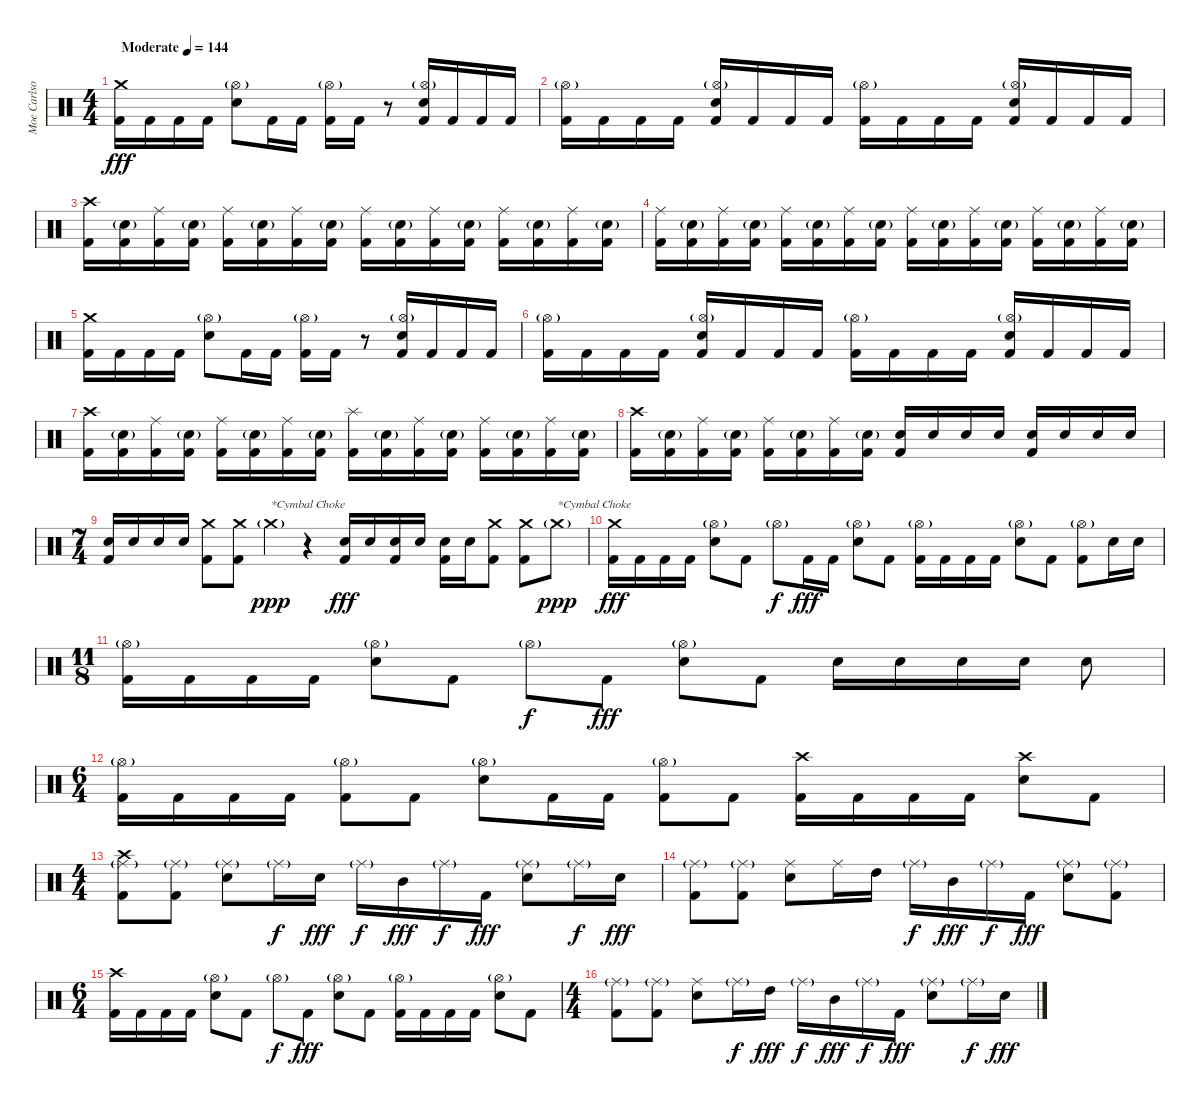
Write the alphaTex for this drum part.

\track ("Moe Carlson" "Moe Carlso") {solo instrument percussion}
\staff {score}
\articulation defaults
\ts (4 4)
\tempo (144 "Moderate")
\clef neutral
\ks c
("Crash medium (hit)" "Kick (hit) 2").16{dy fff} "Kick (hit) 2".16 "Kick (hit) 2".16 "Kick (hit) 2".16 ("Hi-Hat (open)"{g} "Electric Snare (hit)").8 "Kick (hit) 2".16 "Kick (hit) 2".16 ("Hi-Hat (open)"{g} "Kick (hit) 2").16 "Kick (hit) 2".16 r.8 ("Hi-Hat (open)"{g} "Electric Snare (hit)" "Kick (hit) 2").16 "Kick (hit) 2".16 "Kick (hit) 2".16 "Kick (hit) 2".16 |
("Hi-Hat (open)"{g} "Kick (hit) 2").16 "Kick (hit) 2".16 "Kick (hit) 2".16 "Kick (hit) 2".16 ("Hi-Hat (open)"{g} "Electric Snare (hit)" "Kick (hit) 2").16 "Kick (hit) 2".16 "Kick (hit) 2".16 "Kick (hit) 2".16 ("Hi-Hat (open)"{g} "Kick (hit) 2").16 "Kick (hit) 2".16 "Kick (hit) 2".16 "Kick (hit) 2".16 ("Hi-Hat (open)"{g} "Electric Snare (hit)" "Kick (hit) 2").16 "Kick (hit) 2".16 "Kick (hit) 2".16 "Kick (hit) 2".16 |
("Crash high (hit)" "Kick (hit) 2").16 ("Electric Snare (hit)"{g} "Kick (hit) 2").16 ("Ride (middle)" "Kick (hit) 2").16 ("Electric Snare (hit)"{g} "Kick (hit) 2").16 ("Ride (middle)" "Kick (hit) 2").16 ("Electric Snare (hit)"{g} "Kick (hit) 2").16 ("Ride (middle)" "Kick (hit) 2").16 ("Electric Snare (hit)"{g} "Kick (hit) 2").16 ("Ride (middle)" "Kick (hit) 2").16 ("Electric Snare (hit)"{g} "Kick (hit) 2").16 ("Ride (middle)" "Kick (hit) 2").16 ("Electric Snare (hit)"{g} "Kick (hit) 2").16 ("Ride (middle)" "Kick (hit) 2").16 ("Electric Snare (hit)"{g} "Kick (hit) 2").16 ("Ride (middle)" "Kick (hit) 2").16 ("Electric Snare (hit)"{g} "Kick (hit) 2").16 |
("Ride (middle)" "Kick (hit) 2").16 ("Electric Snare (hit)"{g} "Kick (hit) 2").16 ("Ride (middle)" "Kick (hit) 2").16 ("Electric Snare (hit)"{g} "Kick (hit) 2").16 ("Ride (middle)" "Kick (hit) 2").16 ("Electric Snare (hit)"{g} "Kick (hit) 2").16 ("Ride (middle)" "Kick (hit) 2").16 ("Electric Snare (hit)"{g} "Kick (hit) 2").16 ("Ride (middle)" "Kick (hit) 2").16 ("Electric Snare (hit)"{g} "Kick (hit) 2").16 ("Ride (middle)" "Kick (hit) 2").16 ("Electric Snare (hit)"{g} "Kick (hit) 2").16 ("Ride (middle)" "Kick (hit) 2").16 ("Electric Snare (hit)"{g} "Kick (hit) 2").16 ("Ride (middle)" "Kick (hit) 2").16 ("Electric Snare (hit)"{g} "Kick (hit) 2").16 |
("Crash medium (hit)" "Kick (hit) 2").16 "Kick (hit) 2".16 "Kick (hit) 2".16 "Kick (hit) 2".16 ("Hi-Hat (open)"{g} "Electric Snare (hit)").8 "Kick (hit) 2".16 "Kick (hit) 2".16 ("Hi-Hat (open)"{g} "Kick (hit) 2").16 "Kick (hit) 2".16 r.8 ("Hi-Hat (open)"{g} "Electric Snare (hit)" "Kick (hit) 2").16 "Kick (hit) 2".16 "Kick (hit) 2".16 "Kick (hit) 2".16 |
("Hi-Hat (open)"{g} "Kick (hit) 2").16 "Kick (hit) 2".16 "Kick (hit) 2".16 "Kick (hit) 2".16 ("Hi-Hat (open)"{g} "Electric Snare (hit)" "Kick (hit) 2").16 "Kick (hit) 2".16 "Kick (hit) 2".16 "Kick (hit) 2".16 ("Hi-Hat (open)"{g} "Kick (hit) 2").16 "Kick (hit) 2".16 "Kick (hit) 2".16 "Kick (hit) 2".16 ("Hi-Hat (open)"{g} "Electric Snare (hit)" "Kick (hit) 2").16 "Kick (hit) 2".16 "Kick (hit) 2".16 "Kick (hit) 2".16 |
("Crash high (hit)" "Kick (hit) 2").16 ("Electric Snare (hit)"{g} "Kick (hit) 2").16 ("Ride (middle)" "Kick (hit) 2").16 ("Electric Snare (hit)"{g} "Kick (hit) 2").16 ("Ride (middle)" "Kick (hit) 2").16 ("Electric Snare (hit)"{g} "Kick (hit) 2").16 ("Ride (middle)" "Kick (hit) 2").16 ("Electric Snare (hit)"{g} "Kick (hit) 2").16 ("Splash (hit)" "Kick (hit) 2").16 ("Electric Snare (hit)"{g} "Kick (hit) 2").16 ("Ride (middle)" "Kick (hit) 2").16 ("Electric Snare (hit)"{g} "Kick (hit) 2").16 ("Ride (middle)" "Kick (hit) 2").16 ("Electric Snare (hit)"{g} "Kick (hit) 2").16 ("Ride (middle)" "Kick (hit) 2").16 ("Electric Snare (hit)"{g} "Kick (hit) 2").16 |
("Crash high (hit)" "Kick (hit) 2").16 ("Electric Snare (hit)"{g} "Kick (hit) 2").16 ("Ride (middle)" "Kick (hit) 2").16 ("Electric Snare (hit)"{g} "Kick (hit) 2").16 ("Ride (middle)" "Kick (hit) 2").16 ("Electric Snare (hit)"{g} "Kick (hit) 2").16 ("Ride (middle)" "Kick (hit) 2").16 ("Electric Snare (hit)"{g} "Kick (hit) 2").16 ("Electric Snare (hit)" "Kick (hit) 2").16 "Electric Snare (hit)".16 "Electric Snare (hit)".16 "Electric Snare (hit)".16 ("Electric Snare (hit)" "Kick (hit) 2").16 "Electric Snare (hit)".16 "Electric Snare (hit)".16 "Electric Snare (hit)".16 |
\ts (7 4)
("Electric Snare (hit)" "Kick (hit) 2").16 "Electric Snare (hit)".16 "Electric Snare (hit)".16 "Electric Snare (hit)".16 ("Crash medium (hit)" "Kick (hit) 2").8 ("Crash medium (hit)" "Kick (hit) 2").8 "Crash medium (hit)"{g}.4{txt "*Cymbal Choke" dy ppp} r.4 ("Electric Snare (hit)" "Kick (hit) 2").16{dy fff} "Electric Snare (hit)".16 ("Electric Snare (hit)" "Kick (hit) 2").16 "Electric Snare (hit)".16 ("Electric Snare (hit)" "Kick (hit) 2").16 "Electric Snare (hit)".16 ("Crash medium (hit)" "Kick (hit) 2").8 ("Crash medium (hit)" "Kick (hit) 2").8 "Crash medium (hit)"{g}.8{txt "*Cymbal Choke" dy ppp} |
("Crash medium (hit)" "Kick (hit) 2").16{dy fff} "Kick (hit) 2".16 "Kick (hit) 2".16 "Kick (hit) 2".16 ("Hi-Hat (open)"{g} "Electric Snare (hit)").8 "Kick (hit) 2".8 "Hi-Hat (open)"{g}.8{dy f} "Kick (hit) 2".16{dy fff} "Kick (hit) 2".16 ("Hi-Hat (open)"{g} "Electric Snare (hit)").8 "Kick (hit) 2".8 ("Hi-Hat (open)"{g} "Kick (hit) 2").16 "Kick (hit) 2".16 "Kick (hit) 2".16 "Kick (hit) 2".16 ("Hi-Hat (open)"{g} "Electric Snare (hit)").8 "Kick (hit) 2".8 ("Hi-Hat (open)"{g} "Kick (hit) 2").8 "Electric Snare (hit)".16 "Electric Snare (hit)".16 |
\ts (11 8)
("Hi-Hat (open)"{g} "Kick (hit) 2").16 "Kick (hit) 2".16 "Kick (hit) 2".16 "Kick (hit) 2".16 ("Hi-Hat (open)"{g} "Electric Snare (hit)").8 "Kick (hit) 2".8 "Hi-Hat (open)"{g}.8{dy f} "Kick (hit) 2".8{dy fff} ("Hi-Hat (open)"{g} "Electric Snare (hit)").8 "Kick (hit) 2".8 "Electric Snare (hit)".16 "Electric Snare (hit)".16 "Electric Snare (hit)".16 "Electric Snare (hit)".16 "Electric Snare (hit)".8 |
\ts (6 4)
("Hi-Hat (open)"{g} "Kick (hit) 2").16 "Kick (hit) 2".16 "Kick (hit) 2".16 "Kick (hit) 2".16 ("Hi-Hat (open)"{g} "Kick (hit) 2").8 "Kick (hit) 2".8 ("Hi-Hat (open)"{g} "Electric Snare (hit)").8 "Kick (hit) 2".16 "Kick (hit) 2".16 ("Hi-Hat (open)"{g} "Kick (hit) 2").8 "Kick (hit) 2".8 ("Crash high (hit)" "Kick (hit) 2").16 "Kick (hit) 2".16 "Kick (hit) 2".16 "Kick (hit) 2".16 ("Crash high (hit)" "Electric Snare (hit)").8 "Kick (hit) 2".8 |
\ts (4 4)
("Crash high (hit)" "Ride (middle)"{g} "Kick (hit) 2").8 ("Ride (middle)"{g} "Kick (hit) 2").8 ("Ride (middle)"{g} "Electric Snare (hit)").8 "Ride (middle)"{g}.16{dy f} "Electric Snare (hit)".16{dy fff} "Ride (middle)"{g}.16{dy f} "Mid Tom (hit)".16{dy fff} "Ride (middle)"{g}.16{dy f} "Kick (hit) 2".16{dy fff} ("Ride (middle)"{g} "Electric Snare (hit)").8 "Ride (middle)"{g}.16{dy f} "Electric Snare (hit)".16{dy fff} |
("Ride (middle)"{g} "Kick (hit) 2").8 ("Ride (middle)"{g} "Kick (hit) 2").8 ("Ride (middle)" "Electric Snare (hit)").8 "Ride (middle)".16 "High Tom (hit)".16 "Ride (middle)"{g}.16{dy f} "Mid Tom (hit)".16{dy fff} "Ride (middle)"{g}.16{dy f} "Kick (hit) 2".16{dy fff} ("Ride (middle)"{g} "Electric Snare (hit)").8 ("Ride (middle)"{g} "Kick (hit) 2").8 |
\ts (6 4)
("Crash high (hit)" "Kick (hit) 2").16 "Kick (hit) 2".16 "Kick (hit) 2".16 "Kick (hit) 2".16 ("Hi-Hat (open)"{g} "Electric Snare (hit)").8 "Kick (hit) 2".8 "Hi-Hat (open)"{g}.8{dy f} "Kick (hit) 2".8{dy fff} ("Hi-Hat (open)"{g} "Electric Snare (hit)").8 "Kick (hit) 2".8 ("Hi-Hat (open)"{g} "Kick (hit) 2").16 "Kick (hit) 2".16 "Kick (hit) 2".16 "Kick (hit) 2".16 ("Hi-Hat (open)"{g} "Electric Snare (hit)").8 "Kick (hit) 2".8 |
\ts (4 4)
("Ride (middle)"{g} "Kick (hit) 2").8 ("Ride (middle)"{g} "Kick (hit) 2").8 ("Ride (middle)" "Electric Snare (hit)").8 "Ride (middle)"{g}.16{dy f} "High Tom (hit)".16{dy fff} "Ride (middle)"{g}.16{dy f} "Mid Tom (hit)".16{dy fff} "Ride (middle)"{g}.16{dy f} "Kick (hit) 2".16{dy fff} ("Ride (middle)"{g} "Electric Snare (hit)").8 "Ride (middle)"{g}.16{dy f} "Electric Snare (hit)".16{dy fff}
